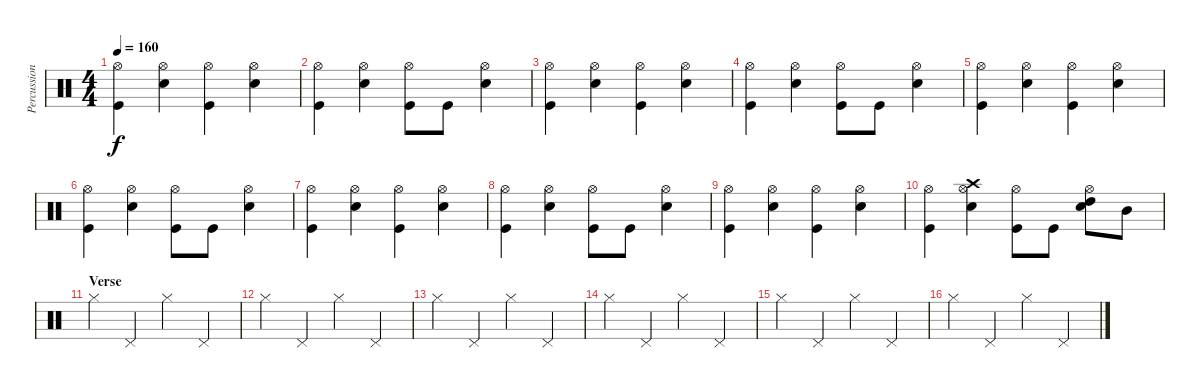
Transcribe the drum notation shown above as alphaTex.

\track ("Percussion" "Percussion") {instrument percussion}
\staff {score}
\articulation defaults
\ts (4 4)
\tempo 160
\clef neutral
\ks c
("Hi-Hat (open)" "Kick (hit)").4{dy f} ("Hi-Hat (open)" "Electric Snare (hit)").4 ("Hi-Hat (open)" "Kick (hit)").4 ("Hi-Hat (open)" "Electric Snare (hit)").4 |
("Hi-Hat (open)" "Kick (hit)").4 ("Hi-Hat (open)" "Electric Snare (hit)").4 ("Hi-Hat (open)" "Kick (hit)").8 "Kick (hit)".8 ("Hi-Hat (open)" "Electric Snare (hit)").4 |
("Hi-Hat (open)" "Kick (hit)").4 ("Hi-Hat (open)" "Electric Snare (hit)").4 ("Hi-Hat (open)" "Kick (hit)").4 ("Hi-Hat (open)" "Electric Snare (hit)").4 |
("Hi-Hat (open)" "Kick (hit)").4 ("Hi-Hat (open)" "Electric Snare (hit)").4 ("Hi-Hat (open)" "Kick (hit)").8 "Kick (hit)".8 ("Hi-Hat (open)" "Electric Snare (hit)").4 |
("Hi-Hat (open)" "Kick (hit)").4 ("Hi-Hat (open)" "Electric Snare (hit)").4 ("Hi-Hat (open)" "Kick (hit)").4 ("Hi-Hat (open)" "Electric Snare (hit)").4 |
("Hi-Hat (open)" "Kick (hit)").4 ("Hi-Hat (open)" "Electric Snare (hit)").4 ("Hi-Hat (open)" "Kick (hit)").8 "Kick (hit)".8 ("Hi-Hat (open)" "Electric Snare (hit)").4 |
("Hi-Hat (open)" "Kick (hit)").4 ("Hi-Hat (open)" "Electric Snare (hit)").4 ("Hi-Hat (open)" "Kick (hit)").4 ("Hi-Hat (open)" "Electric Snare (hit)").4 |
("Hi-Hat (open)" "Kick (hit)").4 ("Hi-Hat (open)" "Electric Snare (hit)").4 ("Hi-Hat (open)" "Kick (hit)").8 "Kick (hit)".8 ("Hi-Hat (open)" "Electric Snare (hit)").4 |
("Hi-Hat (open)" "Kick (hit)").4 ("Hi-Hat (open)" "Electric Snare (hit)").4 ("Hi-Hat (open)" "Kick (hit)").4 ("Hi-Hat (open)" "Electric Snare (hit)").4 |
("Hi-Hat (open)" "Kick (hit)").4 ("Crash high (hit)" "Hi-Hat (open)" "Electric Snare (hit)").4 ("Hi-Hat (open)" "Kick (hit)").8 "Kick (hit)".8 ("High Tom (hit)" "Hi-Hat (open)" "Electric Snare (hit)").8 "Mid Tom (hit)".8 |
\section ("" "Verse")
"Hi-Hat (closed)".4 "Pedal Hi-Hat (hit)".4 "Hi-Hat (closed)".4 "Pedal Hi-Hat (hit)".4 |
"Hi-Hat (closed)".4 "Pedal Hi-Hat (hit)".4 "Hi-Hat (closed)".4 "Pedal Hi-Hat (hit)".4 |
"Hi-Hat (closed)".4 "Pedal Hi-Hat (hit)".4 "Hi-Hat (closed)".4 "Pedal Hi-Hat (hit)".4 |
"Hi-Hat (closed)".4 "Pedal Hi-Hat (hit)".4 "Hi-Hat (closed)".4 "Pedal Hi-Hat (hit)".4 |
"Hi-Hat (closed)".4 "Pedal Hi-Hat (hit)".4 "Hi-Hat (closed)".4 "Pedal Hi-Hat (hit)".4 |
"Hi-Hat (closed)".4 "Pedal Hi-Hat (hit)".4 "Hi-Hat (closed)".4 "Pedal Hi-Hat (hit)".4
